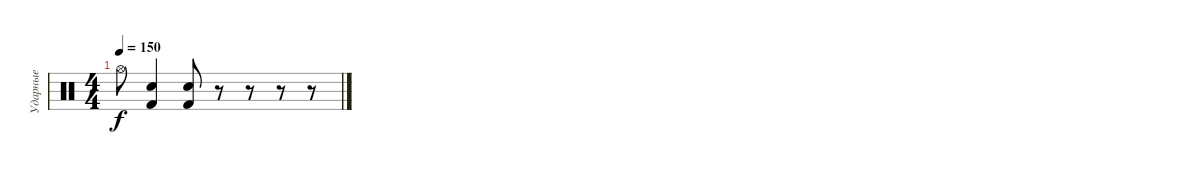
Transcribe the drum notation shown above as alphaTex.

\track ("Ударные" "Ударные") {instrument percussion}
\staff {score}
\articulation defaults
\ts (4 4)
\tempo 150
\clef neutral
\ks c "Hi-Hat (open)".8{dy f}
("Electric Snare (hit)" "Kick (hit) 2").4 ("Electric Snare (hit)" "Kick (hit) 2").8 r.8 r.8 r.8 r.8
